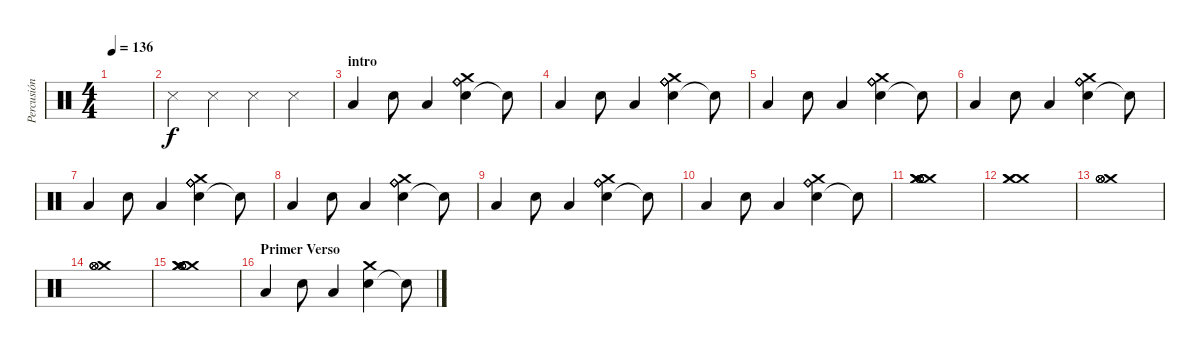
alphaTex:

\track ("Percusión" "Percusión") {instrument percussion}
\staff {score}
\articulation defaults
\ts (4 4)
\tempo 136
\clef neutral
\ks c
|
"Snare (side stick) 3".4 "Snare (side stick) 3".4 "Snare (side stick) 3".4 "Snare (side stick) 3".4 |
\section ("" "intro")
"Low Tom (hit)".4 "Electric Snare (hit)".8 "Low Tom (hit)".4 ("Electric Snare (hit)" "Crash medium (hit)" "Ride (bell)" "Ride (bell)" "Ride (bell)" "Ride (bell)").4 "Snare (hit)"{t}.8 |
"Low Tom (hit)".4 "Electric Snare (hit)".8 "Low Tom (hit)".4 ("Electric Snare (hit)" "Crash medium (hit)" "Ride (bell)" "Ride (bell)" "Ride (bell)" "Ride (bell)").4 "Snare (hit)"{t}.8 |
"Low Tom (hit)".4 "Electric Snare (hit)".8 "Low Tom (hit)".4 ("Electric Snare (hit)" "Crash medium (hit)" "Ride (bell)" "Ride (bell)" "Ride (bell)" "Ride (bell)").4 "Snare (hit)"{t}.8 |
"Low Tom (hit)".4 "Electric Snare (hit)".8 "Low Tom (hit)".4 ("Electric Snare (hit)" "Crash medium (hit)" "Ride (bell)" "Ride (bell)" "Ride (bell)" "Ride (bell)").4 "Snare (hit)"{t}.8 |
"Low Tom (hit)".4 "Electric Snare (hit)".8 "Low Tom (hit)".4 ("Electric Snare (hit)" "Crash medium (hit)" "Ride (bell)" "Ride (bell)" "Ride (bell)" "Ride (bell)").4 "Snare (hit)"{t}.8 |
"Low Tom (hit)".4 "Electric Snare (hit)".8 "Low Tom (hit)".4 ("Electric Snare (hit)" "Crash medium (hit)" "Ride (bell)" "Ride (bell)" "Ride (bell)" "Ride (bell)").4 "Snare (hit)"{t}.8 |
"Low Tom (hit)".4 "Electric Snare (hit)".8 "Low Tom (hit)".4 ("Electric Snare (hit)" "Crash medium (hit)" "Ride (bell)" "Ride (bell)" "Ride (bell)" "Ride (bell)").4 "Snare (hit)"{t}.8 |
"Low Tom (hit)".4 "Electric Snare (hit)".8 "Low Tom (hit)".4 ("Electric Snare (hit)" "Crash medium (hit)" "Ride (bell)" "Ride (bell)" "Ride (bell)" "Ride (bell)").4 "Snare (hit)"{t}.8 |
("Crash medium (hit)" "Crash medium (hit)" "Crash medium (hit)" "Hi-Hat (open)" "Hi-Hat (open)" "Hi-Hat (open)").1 |
("Crash medium (hit)" "Crash medium (hit)" "Crash medium (hit)").1 |
("Crash medium (hit)" "Hi-Hat (open)" "Hi-Hat (open)" "Hi-Hat (open)" "Hi-Hat (open)").1 |
("Crash medium (hit)" "Hi-Hat (open)" "Hi-Hat (open)" "Hi-Hat (open)" "Hi-Hat (open)").1 |
("Crash medium (hit)" "Crash medium (hit)" "Crash medium (hit)" "Hi-Hat (open)" "Hi-Hat (open)" "Hi-Hat (open)").1 |
\section ("" "Primer Verso")
"Low Tom (hit)".4 "Electric Snare (hit)".8 "Low Tom (hit)".4 ("Electric Snare (hit)" "Crash medium (hit)").4 "Snare (hit)"{t}.8
